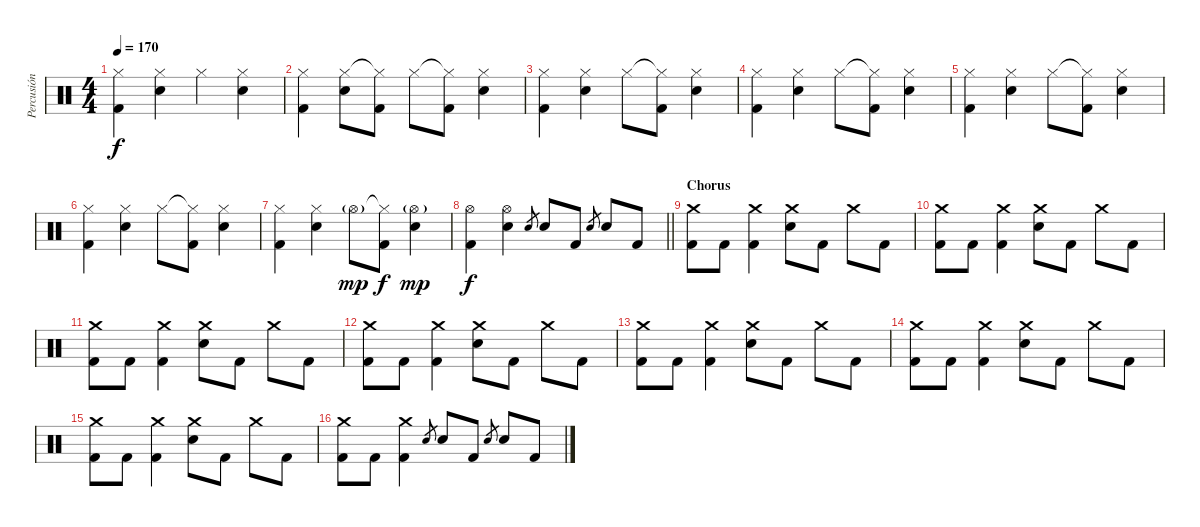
\track ("Percusión" "Percusión") {instrument percussion}
\staff {score}
\articulation defaults
\ts (4 4)
\tempo 170
\clef neutral
\ks c
("Hi-Hat (closed)" "Kick (hit) 2").4{dy f} ("Hi-Hat (closed)" "Electric Snare (hit)").4 "Hi-Hat (closed)".4 ("Hi-Hat (closed)" "Electric Snare (hit)").4 |
("Hi-Hat (closed)" "Kick (hit) 2").4 ("Hi-Hat (closed)" "Electric Snare (hit)").8 ("Hi-Hat (closed)"{t} "Kick (hit) 2").8 "Hi-Hat (closed)".8 ("Hi-Hat (closed)"{t} "Kick (hit) 2").8 ("Hi-Hat (closed)" "Electric Snare (hit)").4 |
("Hi-Hat (closed)" "Kick (hit) 2").4 ("Hi-Hat (closed)" "Electric Snare (hit)").4 "Hi-Hat (closed)".8 ("Hi-Hat (closed)"{t} "Kick (hit) 2").8 ("Hi-Hat (closed)" "Electric Snare (hit)").4 |
("Hi-Hat (closed)" "Kick (hit) 2").4 ("Hi-Hat (closed)" "Electric Snare (hit)").4 "Hi-Hat (closed)".8 ("Hi-Hat (closed)"{t} "Kick (hit) 2").8 ("Hi-Hat (closed)" "Electric Snare (hit)").4 |
("Hi-Hat (closed)" "Kick (hit) 2").4 ("Hi-Hat (closed)" "Electric Snare (hit)").4 "Hi-Hat (closed)".8 ("Hi-Hat (closed)"{t} "Kick (hit) 2").8 ("Hi-Hat (closed)" "Electric Snare (hit)").4 |
("Hi-Hat (closed)" "Kick (hit) 2").4 ("Hi-Hat (closed)" "Electric Snare (hit)").4 "Hi-Hat (closed)".8 ("Hi-Hat (closed)"{t} "Kick (hit) 2").8 ("Hi-Hat (closed)" "Electric Snare (hit)").4 |
("Hi-Hat (closed)" "Kick (hit) 2").4 ("Hi-Hat (closed)" "Electric Snare (hit)").4 "Hi-Hat (open)"{g}.8{dy mp} ("Hi-Hat (closed)"{t} "Kick (hit) 2").8{dy f} ("Hi-Hat (open)"{g} "Electric Snare (hit)").4{dy mp} |
\barLineRight lightlight
("Hi-Hat (open)" "Kick (hit) 2").4{dy f} ("Hi-Hat (open)" "Electric Snare (hit)").4 "Electric Snare (hit)".8{gr} "Electric Snare (hit)".8 "Kick (hit) 2".8 "Electric Snare (hit)".8{gr} "Electric Snare (hit)".8 "Kick (hit) 2".8 |
\section ("" "Chorus")
("Crash medium (hit)" "Kick (hit) 2").8 "Kick (hit) 2".8 ("Crash medium (hit)" "Kick (hit) 2").4 ("Crash medium (hit)" "Electric Snare (hit)").8 "Kick (hit) 2".8 "Crash medium (hit)".8 "Kick (hit) 2".8 |
("Crash medium (hit)" "Kick (hit) 2").8 "Kick (hit) 2".8 ("Crash medium (hit)" "Kick (hit) 2").4 ("Crash medium (hit)" "Electric Snare (hit)").8 "Kick (hit) 2".8 "Crash medium (hit)".8 "Kick (hit) 2".8 |
("Crash medium (hit)" "Kick (hit) 2").8 "Kick (hit) 2".8 ("Crash medium (hit)" "Kick (hit) 2").4 ("Crash medium (hit)" "Electric Snare (hit)").8 "Kick (hit) 2".8 "Crash medium (hit)".8 "Kick (hit) 2".8 |
("Crash medium (hit)" "Kick (hit) 2").8 "Kick (hit) 2".8 ("Crash medium (hit)" "Kick (hit) 2").4 ("Crash medium (hit)" "Electric Snare (hit)").8 "Kick (hit) 2".8 "Crash medium (hit)".8 "Kick (hit) 2".8 |
("Crash medium (hit)" "Kick (hit) 2").8 "Kick (hit) 2".8 ("Crash medium (hit)" "Kick (hit) 2").4 ("Crash medium (hit)" "Electric Snare (hit)").8 "Kick (hit) 2".8 "Crash medium (hit)".8 "Kick (hit) 2".8 |
("Crash medium (hit)" "Kick (hit) 2").8 "Kick (hit) 2".8 ("Crash medium (hit)" "Kick (hit) 2").4 ("Crash medium (hit)" "Electric Snare (hit)").8 "Kick (hit) 2".8 "Crash medium (hit)".8 "Kick (hit) 2".8 |
("Crash medium (hit)" "Kick (hit) 2").8 "Kick (hit) 2".8 ("Crash medium (hit)" "Kick (hit) 2").4 ("Crash medium (hit)" "Electric Snare (hit)").8 "Kick (hit) 2".8 "Crash medium (hit)".8 "Kick (hit) 2".8 |
("Crash medium (hit)" "Kick (hit) 2").8 "Kick (hit) 2".8 ("Crash medium (hit)" "Kick (hit) 2").4 "Electric Snare (hit)".8{gr} "Electric Snare (hit)".8 "Kick (hit) 2".8 "Electric Snare (hit)".8{gr} "Electric Snare (hit)".8 "Kick (hit) 2".8
